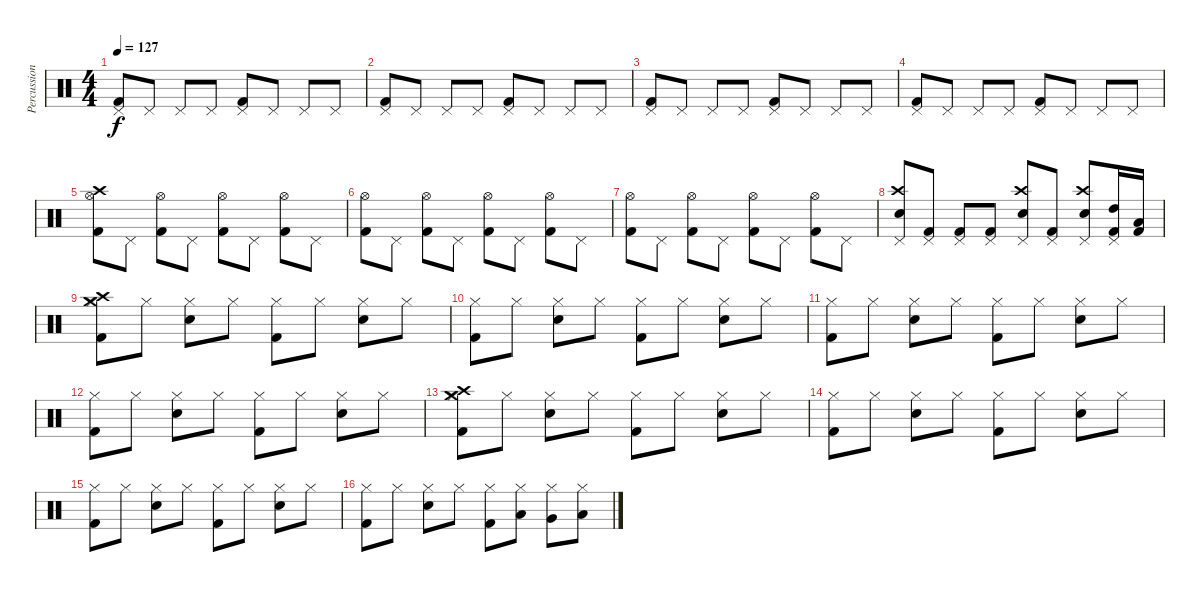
\track ("Percussion" "Percussion") {instrument percussion}
\staff {score}
\articulation defaults
\ts (4 4)
\tempo 127
\clef neutral
\ks c
("Pedal Hi-Hat (hit)" "Kick (hit) 2").8{dy f} "Pedal Hi-Hat (hit)".8 "Pedal Hi-Hat (hit)".8 "Pedal Hi-Hat (hit)".8 ("Pedal Hi-Hat (hit)" "Kick (hit) 2").8 "Pedal Hi-Hat (hit)".8 "Pedal Hi-Hat (hit)".8 "Pedal Hi-Hat (hit)".8 |
("Pedal Hi-Hat (hit)" "Kick (hit) 2").8 "Pedal Hi-Hat (hit)".8 "Pedal Hi-Hat (hit)".8 "Pedal Hi-Hat (hit)".8 ("Pedal Hi-Hat (hit)" "Kick (hit) 2").8 "Pedal Hi-Hat (hit)".8 "Pedal Hi-Hat (hit)".8 "Pedal Hi-Hat (hit)".8 |
("Pedal Hi-Hat (hit)" "Kick (hit) 2").8 "Pedal Hi-Hat (hit)".8 "Pedal Hi-Hat (hit)".8 "Pedal Hi-Hat (hit)".8 ("Pedal Hi-Hat (hit)" "Kick (hit) 2").8 "Pedal Hi-Hat (hit)".8 "Pedal Hi-Hat (hit)".8 "Pedal Hi-Hat (hit)".8 |
("Pedal Hi-Hat (hit)" "Kick (hit) 2").8 "Pedal Hi-Hat (hit)".8 "Pedal Hi-Hat (hit)".8 "Pedal Hi-Hat (hit)".8 ("Pedal Hi-Hat (hit)" "Kick (hit) 2").8 "Pedal Hi-Hat (hit)".8 "Pedal Hi-Hat (hit)".8 "Pedal Hi-Hat (hit)".8 |
("Crash high (hit)" "Hi-Hat (open)" "Kick (hit) 2").8 "Pedal Hi-Hat (hit)".8 ("Hi-Hat (open)" "Kick (hit) 2").8 "Pedal Hi-Hat (hit)".8 ("Hi-Hat (open)" "Kick (hit) 2").8 "Pedal Hi-Hat (hit)".8 ("Hi-Hat (open)" "Kick (hit) 2").8 "Pedal Hi-Hat (hit)".8 |
("Hi-Hat (open)" "Kick (hit) 2").8 "Pedal Hi-Hat (hit)".8 ("Hi-Hat (open)" "Kick (hit) 2").8 "Pedal Hi-Hat (hit)".8 ("Hi-Hat (open)" "Kick (hit) 2").8 "Pedal Hi-Hat (hit)".8 ("Hi-Hat (open)" "Kick (hit) 2").8 "Pedal Hi-Hat (hit)".8 |
("Hi-Hat (open)" "Kick (hit) 2").8 "Pedal Hi-Hat (hit)".8 ("Hi-Hat (open)" "Kick (hit) 2").8 "Pedal Hi-Hat (hit)".8 ("Hi-Hat (open)" "Kick (hit) 2").8 "Pedal Hi-Hat (hit)".8 ("Hi-Hat (open)" "Kick (hit) 2").8 "Pedal Hi-Hat (hit)".8 |
("Crash high (hit)" "Pedal Hi-Hat (hit)" "Snare (hit) 2").8 ("Pedal Hi-Hat (hit)" "Kick (hit) 2").8 ("Pedal Hi-Hat (hit)" "Kick (hit) 2").8 ("Pedal Hi-Hat (hit)" "Kick (hit) 2").8 ("Crash high (hit)" "Pedal Hi-Hat (hit)" "Snare (hit) 2").8 ("Pedal Hi-Hat (hit)" "Kick (hit) 2").8 ("Crash high (hit)" "Pedal Hi-Hat (hit)" "Snare (hit) 2").8 ("Pedal Hi-Hat (hit)" "High Tom (hit)" "Kick (hit) 2").16 ("Low Tom (hit)" "Kick (hit) 2").16 |
("Crash medium (hit)" "Crash high (hit)" "Hi-Hat (closed)" "Kick (hit) 2").8 "Hi-Hat (closed)".8 ("Hi-Hat (closed)" "Snare (hit) 2").8 "Hi-Hat (closed)".8 ("Hi-Hat (closed)" "Kick (hit) 2").8 "Hi-Hat (closed)".8 ("Hi-Hat (closed)" "Snare (hit) 2").8 "Hi-Hat (closed)".8 |
("Hi-Hat (closed)" "Kick (hit) 2").8 "Hi-Hat (closed)".8 ("Hi-Hat (closed)" "Snare (hit) 2").8 "Hi-Hat (closed)".8 ("Hi-Hat (closed)" "Kick (hit) 2").8 "Hi-Hat (closed)".8 ("Hi-Hat (closed)" "Snare (hit) 2").8 "Hi-Hat (closed)".8 |
("Hi-Hat (closed)" "Kick (hit) 2").8 "Hi-Hat (closed)".8 ("Hi-Hat (closed)" "Snare (hit) 2").8 "Hi-Hat (closed)".8 ("Hi-Hat (closed)" "Kick (hit) 2").8 "Hi-Hat (closed)".8 ("Hi-Hat (closed)" "Snare (hit) 2").8 "Hi-Hat (closed)".8 |
("Hi-Hat (closed)" "Kick (hit) 2").8 "Hi-Hat (closed)".8 ("Hi-Hat (closed)" "Snare (hit) 2").8 "Hi-Hat (closed)".8 ("Hi-Hat (closed)" "Kick (hit) 2").8 "Hi-Hat (closed)".8 ("Hi-Hat (closed)" "Snare (hit) 2").8 "Hi-Hat (closed)".8 |
("Crash medium (hit)" "Crash high (hit)" "Hi-Hat (closed)" "Kick (hit) 2").8 "Hi-Hat (closed)".8 ("Hi-Hat (closed)" "Snare (hit) 2").8 "Hi-Hat (closed)".8 ("Hi-Hat (closed)" "Kick (hit) 2").8 "Hi-Hat (closed)".8 ("Hi-Hat (closed)" "Snare (hit) 2").8 "Hi-Hat (closed)".8 |
("Hi-Hat (closed)" "Kick (hit) 2").8 "Hi-Hat (closed)".8 ("Hi-Hat (closed)" "Snare (hit) 2").8 "Hi-Hat (closed)".8 ("Hi-Hat (closed)" "Kick (hit) 2").8 "Hi-Hat (closed)".8 ("Hi-Hat (closed)" "Snare (hit) 2").8 "Hi-Hat (closed)".8 |
("Hi-Hat (closed)" "Kick (hit) 2").8 "Hi-Hat (closed)".8 ("Hi-Hat (closed)" "Snare (hit) 2").8 "Hi-Hat (closed)".8 ("Hi-Hat (closed)" "Kick (hit) 2").8 "Hi-Hat (closed)".8 ("Hi-Hat (closed)" "Snare (hit) 2").8 "Hi-Hat (closed)".8 |
("Hi-Hat (closed)" "Kick (hit) 2").8 "Hi-Hat (closed)".8 ("Hi-Hat (closed)" "Snare (hit) 2").8 "Hi-Hat (closed)".8 ("Hi-Hat (closed)" "Kick (hit) 2").8 ("Hi-Hat (closed)" "Low Tom (hit)").8 ("Hi-Hat (closed)" "Very Low Tom (hit)").8 ("Hi-Hat (closed)" "Low Floor Tom (hit)").8
